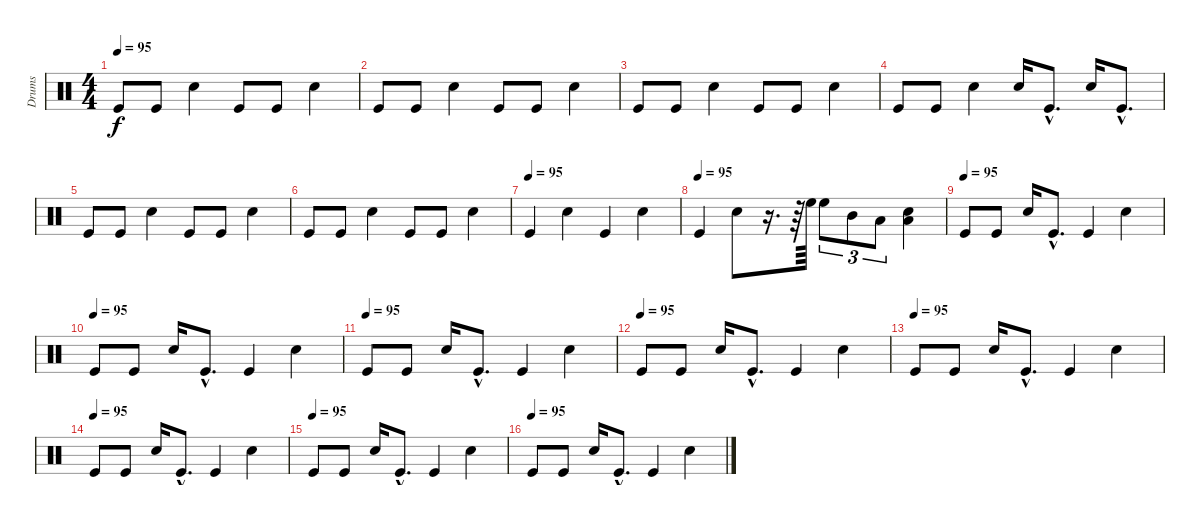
\track ("Drums" "Drums") {instrument percussion}
\staff {score}
\articulation defaults
\ts (4 4)
\tempo 95
\clef neutral
\ks c "Kick (hit)".8{dy f} "Kick (hit)".8 "Snare (hit) 2".4 "Kick (hit)".8 "Kick (hit)".8 "Snare (hit) 2".4
|
"Kick (hit)".8 "Kick (hit)".8 "Snare (hit) 2".4 "Kick (hit)".8 "Kick (hit)".8 "Snare (hit) 2".4 |
"Kick (hit)".8 "Kick (hit)".8 "Snare (hit) 2".4 "Kick (hit)".8 "Kick (hit)".8 "Snare (hit) 2".4 |
"Kick (hit)".8 "Kick (hit)".8 "Snare (hit) 2".4 "Snare (hit) 2".16 "Kick (hit)"{hac}.8{d} "Snare (hit) 2".16 "Kick (hit)"{hac}.8{d} |
"Kick (hit)".8 "Kick (hit)".8 "Snare (hit) 2".4 "Kick (hit)".8 "Kick (hit)".8 "Snare (hit) 2".4 |
"Kick (hit)".8 "Kick (hit)".8 "Snare (hit) 2".4 "Kick (hit)".8 "Kick (hit)".8 "Snare (hit) 2".4 |
\tempo (95)
"Kick (hit)".4 "Snare (hit) 2".4 "Kick (hit)".4 "Snare (hit) 2".4 |
\tempo (95)
"Kick (hit)".4 "Snare (hit) 2".8 r.16{d} r.64 "High Floor Tom (hit)".64 "High Floor Tom (hit)".8{tu (3 2)} "Mid Tom (hit)".8{tu (3 2)} "Low Tom (hit)".8{tu (3 2)} ("Low Floor Tom (hit)" "Snare (hit) 2").4 |
\tempo (95)
"Kick (hit)".8 "Kick (hit)".8 "Snare (hit) 2".16 "Kick (hit)"{hac}.8{d} "Kick (hit)".4 "Snare (hit) 2".4 |
\tempo (95)
"Kick (hit)".8 "Kick (hit)".8 "Snare (hit) 2".16 "Kick (hit)"{hac}.8{d} "Kick (hit)".4 "Snare (hit) 2".4 |
\tempo (95)
"Kick (hit)".8 "Kick (hit)".8 "Snare (hit) 2".16 "Kick (hit)"{hac}.8{d} "Kick (hit)".4 "Snare (hit) 2".4 |
\tempo (95)
"Kick (hit)".8 "Kick (hit)".8 "Snare (hit) 2".16 "Kick (hit)"{hac}.8{d} "Kick (hit)".4 "Snare (hit) 2".4 |
\tempo (95)
"Kick (hit)".8 "Kick (hit)".8 "Snare (hit) 2".16 "Kick (hit)"{hac}.8{d} "Kick (hit)".4 "Snare (hit) 2".4 |
\tempo (95)
"Kick (hit)".8 "Kick (hit)".8 "Snare (hit) 2".16 "Kick (hit)"{hac}.8{d} "Kick (hit)".4 "Snare (hit) 2".4 |
\tempo (95)
"Kick (hit)".8 "Kick (hit)".8 "Snare (hit) 2".16 "Kick (hit)"{hac}.8{d} "Kick (hit)".4 "Snare (hit) 2".4 |
\tempo (95)
"Kick (hit)".8 "Kick (hit)".8 "Snare (hit) 2".16 "Kick (hit)"{hac}.8{d} "Kick (hit)".4 "Snare (hit) 2".4
